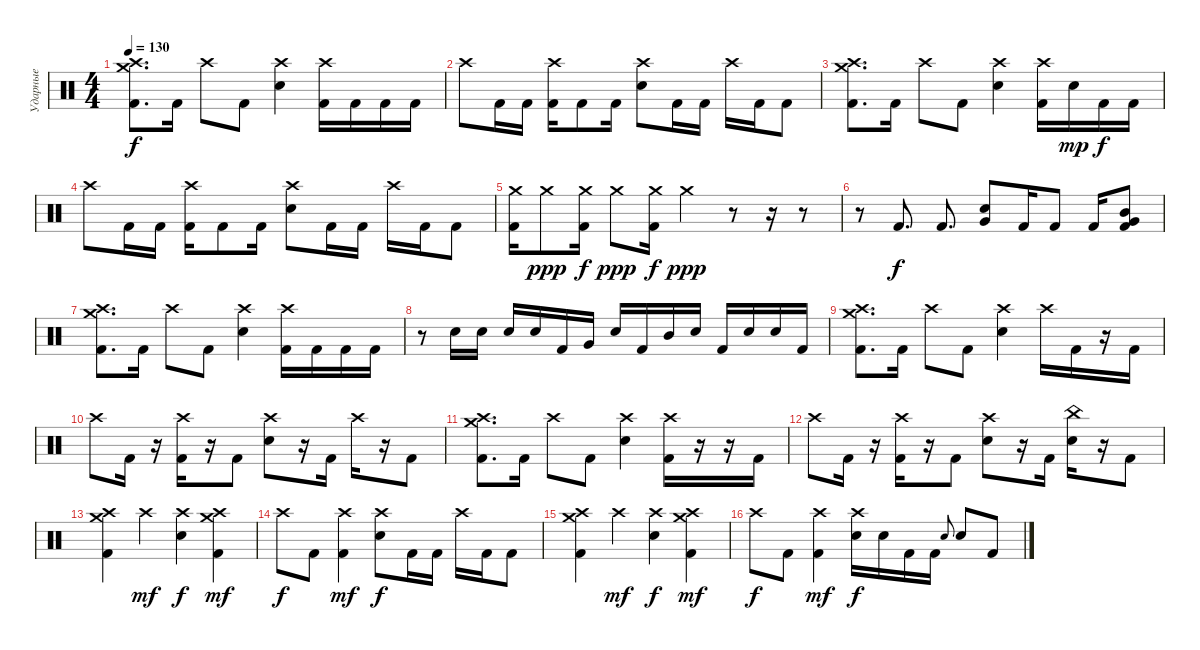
\track ("Ударные" "Ударные") {instrument percussion}
\staff {score}
\articulation defaults
\ts (4 4)
\tempo 130
\clef neutral
\ks c
("Crash high (hit)" "Crash medium (hit)" "Kick (hit) 2").8{d dy f} "Kick (hit) 2".16 "Crash high (hit)".8 "Kick (hit) 2".8 ("Crash high (hit)" "Electric Snare (hit)").4 ("Crash high (hit)" "Kick (hit) 2").16 "Kick (hit) 2".16 "Kick (hit) 2".16 "Kick (hit) 2".16 |
"Crash high (hit)".8 "Kick (hit) 2".16 "Kick (hit) 2".16 ("Crash high (hit)" "Kick (hit) 2").16 "Kick (hit) 2".8 "Kick (hit) 2".16 ("Crash high (hit)" "Electric Snare (hit)").8 "Kick (hit) 2".16 "Kick (hit) 2".16 "Crash high (hit)".16 "Kick (hit) 2".16 "Kick (hit) 2".8 |
("Crash high (hit)" "Crash medium (hit)" "Kick (hit) 2").8{d} "Kick (hit) 2".16 "Crash high (hit)".8 "Kick (hit) 2".8 ("Crash high (hit)" "Electric Snare (hit)").4 ("Crash high (hit)" "Kick (hit) 2").16 "Electric Snare (hit)".16{dy mp} "Kick (hit) 2".16{dy f} "Kick (hit) 2".16 |
"Crash high (hit)".8 "Kick (hit) 2".16 "Kick (hit) 2".16 ("Crash high (hit)" "Kick (hit) 2").16 "Kick (hit) 2".8 "Kick (hit) 2".16 ("Crash high (hit)" "Electric Snare (hit)").8 "Kick (hit) 2".16 "Kick (hit) 2".16 "Crash high (hit)".16 "Kick (hit) 2".16 "Kick (hit) 2".8 |
("Crash medium (hit)" "Kick (hit) 2").16 "Crash medium (hit)".8{dy ppp} ("Crash medium (hit)" "Kick (hit) 2").16{dy f} "Crash medium (hit)".8{dy ppp} ("Crash medium (hit)" "Kick (hit) 2").16{dy f} "Crash medium (hit)".4{dy ppp} r.8 r.16 r.8 |
r.8 "Kick (hit) 2".8{d dy f} "Kick (hit) 2".8{d} ("Electric Snare (hit)" "Very Low Tom (hit)").8 "Kick (hit) 2".16 "Kick (hit) 2".8 "Kick (hit) 2".16 ("Mid Tom (hit)" "Very Low Tom (hit)" "Kick (hit) 2").8 |
("Crash high (hit)" "Crash medium (hit)" "Kick (hit) 2").8{d} "Kick (hit) 2".16 "Crash high (hit)".8 "Kick (hit) 2".8 ("Crash high (hit)" "Electric Snare (hit)").4 ("Crash high (hit)" "Kick (hit) 2").16 "Kick (hit) 2".16 "Kick (hit) 2".16 "Kick (hit) 2".16 |
r.8 "Electric Snare (hit)".16 "Electric Snare (hit)".16 "Electric Snare (hit)".16 "Electric Snare (hit)".16 "Kick (hit) 2".16 "Very Low Tom (hit)".16 "Electric Snare (hit)".16 "Kick (hit) 2".16 "Mid Tom (hit)".16 "Electric Snare (hit)".16 "Kick (hit) 2".16 "Electric Snare (hit)".16 "Electric Snare (hit)".16 "Kick (hit) 2".16 |
("Crash high (hit)" "Crash medium (hit)" "Kick (hit) 2").8{d} "Kick (hit) 2".16 "Crash high (hit)".8 "Kick (hit) 2".8 ("Crash high (hit)" "Electric Snare (hit)").4 "Crash high (hit)".16 "Kick (hit) 2".16 r.16 "Kick (hit) 2".16 |
"Crash high (hit)".8 "Kick (hit) 2".16 r.16 ("Crash high (hit)" "Kick (hit) 2").16 r.16 "Kick (hit) 2".8 ("Crash high (hit)" "Electric Snare (hit)").8 r.16 "Kick (hit) 2".16 "Crash high (hit)".16 r.16 "Kick (hit) 2".8 |
("Crash high (hit)" "Crash medium (hit)" "Kick (hit) 2").8{d} "Kick (hit) 2".16 "Crash high (hit)".8 "Kick (hit) 2".8 ("Crash high (hit)" "Electric Snare (hit)").4 ("Crash high (hit)" "Kick (hit) 2").16 r.16 r.16 "Kick (hit) 2".16 |
"Crash high (hit)".8 "Kick (hit) 2".16 r.16 ("Crash high (hit)" "Kick (hit) 2").16 r.16 "Kick (hit) 2".8 ("Crash high (hit)" "Electric Snare (hit)").8 r.16 "Kick (hit) 2".16 ("China (hit)" "Electric Snare (hit)").16 r.16 "Kick (hit) 2".8 |
("Crash high (hit)" "Crash medium (hit)" "Kick (hit) 2").4 "Crash high (hit)".4{dy mf} ("Crash high (hit)" "Electric Snare (hit)").4{dy f} ("Crash high (hit)" "Crash medium (hit)" "Kick (hit) 2").4{dy mf} |
"Crash high (hit)".8{dy f} "Kick (hit) 2".8 ("Crash high (hit)" "Kick (hit) 2").4{dy mf} ("Crash high (hit)" "Electric Snare (hit)").8{dy f} "Kick (hit) 2".16 "Kick (hit) 2".16 "Crash high (hit)".16 "Kick (hit) 2".16 "Kick (hit) 2".8 |
("Crash high (hit)" "Crash medium (hit)" "Kick (hit) 2").4 "Crash high (hit)".4{dy mf} ("Crash high (hit)" "Electric Snare (hit)").4{dy f} ("Crash high (hit)" "Crash medium (hit)" "Kick (hit) 2").4{dy mf} |
"Crash high (hit)".8{dy f} "Kick (hit) 2".8 ("Crash high (hit)" "Kick (hit) 2").4{dy mf} ("Crash high (hit)" "Electric Snare (hit)").16{dy f} "Electric Snare (hit)".16 "Kick (hit) 2".16 "Kick (hit) 2".16 "Electric Snare (hit)".8{gr onbeat} "Electric Snare (hit)".8 "Kick (hit) 2".8
